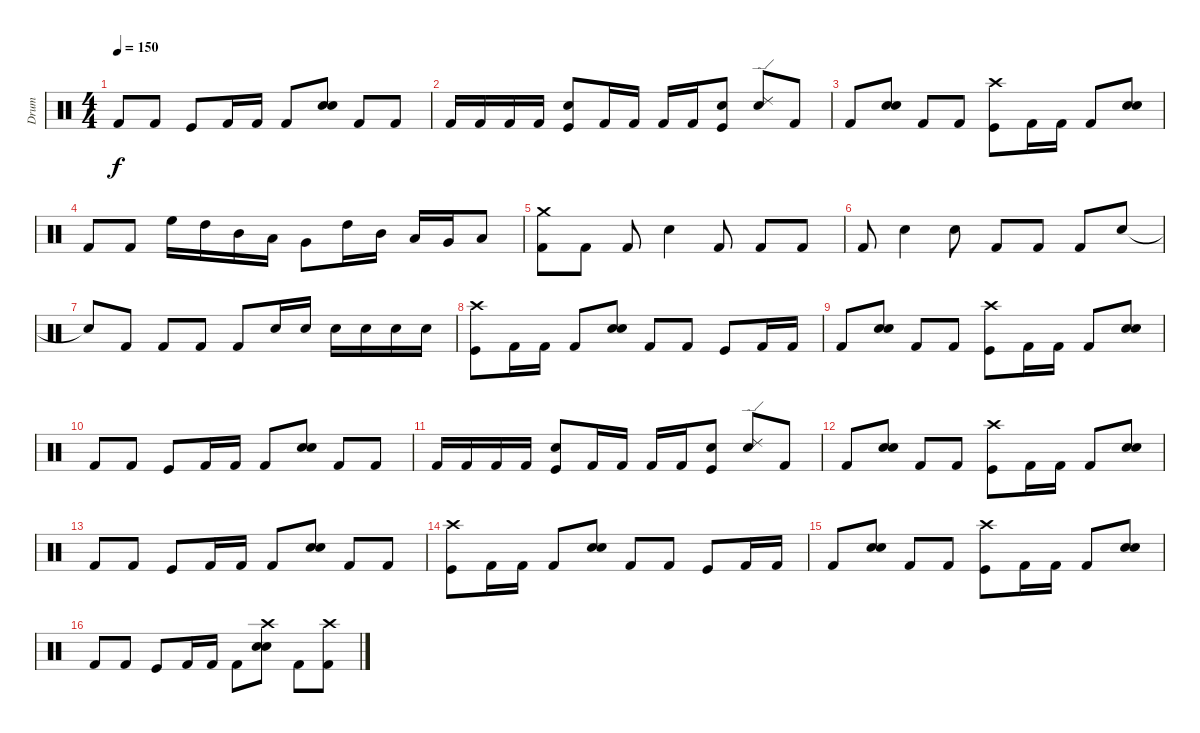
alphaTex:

\track ("Drum" "Drum") {instrument percussion}
\staff {score}
\articulation defaults
\ts (4 4)
\tempo 150
\clef neutral
\ks c "Kick (hit) 2".8{dy f} "Kick (hit) 2".8 "Kick (hit)".8 "Kick (hit) 2".16 "Kick (hit) 2".16 "Kick (hit) 2".8
("Snare (hit) 2" "Electric Snare (hit)").8 "Kick (hit) 2".8 "Kick (hit) 2".8 |
"Kick (hit) 2".16 "Kick (hit) 2".16 "Kick (hit) 2".16 "Kick (hit) 2".16 ("Electric Snare (hit)" "Kick (hit)").8 "Kick (hit) 2".16 "Kick (hit) 2".16 "Kick (hit) 2".16 "Kick (hit) 2".16 ("Electric Snare (hit)" "Kick (hit)").8 ("Ride (edge) 2" "Electric Snare (hit)").8 "Kick (hit) 2".8 |
"Kick (hit) 2".8 ("Snare (hit) 2" "Electric Snare (hit)").8 "Kick (hit) 2".8 "Kick (hit) 2".8 ("Crash high (hit)" "Kick (hit)").8 "Kick (hit) 2".16 "Kick (hit) 2".16 "Kick (hit) 2".8 ("Snare (hit) 2" "Electric Snare (hit)").8 |
"Kick (hit) 2".8 "Kick (hit) 2".8 "High Floor Tom (hit)".16 "High Tom (hit)".16 "Mid Tom (hit)".16 "Low Tom (hit)".16 "Very Low Tom (hit)".8 "High Tom (hit)".16 "Mid Tom (hit)".16 "Low Tom (hit)".16 "Very Low Tom (hit)".16 "Low Floor Tom (hit)".8 |
("Crash medium (hit)" "Kick (hit) 2").8 "Kick (hit) 2".8 "Kick (hit) 2".8 "Electric Snare (hit)".4 "Kick (hit) 2".8 "Kick (hit) 2".8 "Kick (hit) 2".8 |
"Kick (hit) 2".8 "Electric Snare (hit)".4 "Electric Snare (hit)".8 "Kick (hit) 2".8 "Kick (hit) 2".8 "Kick (hit) 2".8 "Electric Snare (hit)".8 |
"Snare (hit)"{t}.8 "Kick (hit) 2".8 "Kick (hit) 2".8 "Kick (hit) 2".8 "Kick (hit) 2".8 "Electric Snare (hit)".16 "Electric Snare (hit)".16 "Electric Snare (hit)".16 "Snare (hit) 2".16 "Snare (hit) 2".16 "Snare (hit) 2".16 |
("Crash high (hit)" "Kick (hit)").8 "Kick (hit) 2".16 "Kick (hit) 2".16 "Kick (hit) 2".8 ("Snare (hit) 2" "Electric Snare (hit)").8 "Kick (hit) 2".8 "Kick (hit) 2".8 "Kick (hit)".8 "Kick (hit) 2".16 "Kick (hit) 2".16 |
"Kick (hit) 2".8 ("Snare (hit) 2" "Electric Snare (hit)").8 "Kick (hit) 2".8 "Kick (hit) 2".8 ("Crash high (hit)" "Kick (hit)").8 "Kick (hit) 2".16 "Kick (hit) 2".16 "Kick (hit) 2".8 ("Snare (hit) 2" "Electric Snare (hit)").8 |
"Kick (hit) 2".8 "Kick (hit) 2".8 "Kick (hit)".8 "Kick (hit) 2".16 "Kick (hit) 2".16 "Kick (hit) 2".8 ("Snare (hit) 2" "Electric Snare (hit)").8 "Kick (hit) 2".8 "Kick (hit) 2".8 |
"Kick (hit) 2".16 "Kick (hit) 2".16 "Kick (hit) 2".16 "Kick (hit) 2".16 ("Electric Snare (hit)" "Kick (hit)").8 "Kick (hit) 2".16 "Kick (hit) 2".16 "Kick (hit) 2".16 "Kick (hit) 2".16 ("Electric Snare (hit)" "Kick (hit)").8 ("Ride (edge) 2" "Electric Snare (hit)").8 "Kick (hit) 2".8 |
"Kick (hit) 2".8 ("Snare (hit) 2" "Electric Snare (hit)").8 "Kick (hit) 2".8 "Kick (hit) 2".8 ("Crash high (hit)" "Kick (hit)").8 "Kick (hit) 2".16 "Kick (hit) 2".16 "Kick (hit) 2".8 ("Snare (hit) 2" "Electric Snare (hit)").8 |
"Kick (hit) 2".8 "Kick (hit) 2".8 "Kick (hit)".8 "Kick (hit) 2".16 "Kick (hit) 2".16 "Kick (hit) 2".8 ("Snare (hit) 2" "Electric Snare (hit)").8 "Kick (hit) 2".8 "Kick (hit) 2".8 |
("Crash high (hit)" "Kick (hit)").8 "Kick (hit) 2".16 "Kick (hit) 2".16 "Kick (hit) 2".8 ("Snare (hit) 2" "Electric Snare (hit)").8 "Kick (hit) 2".8 "Kick (hit) 2".8 "Kick (hit)".8 "Kick (hit) 2".16 "Kick (hit) 2".16 |
"Kick (hit) 2".8 ("Snare (hit) 2" "Electric Snare (hit)").8 "Kick (hit) 2".8 "Kick (hit) 2".8 ("Crash high (hit)" "Kick (hit)").8 "Kick (hit) 2".16 "Kick (hit) 2".16 "Kick (hit) 2".8 ("Snare (hit) 2" "Electric Snare (hit)").8 |
"Kick (hit) 2".8 "Kick (hit) 2".8 "Kick (hit)".8 "Kick (hit) 2".16 "Kick (hit) 2".16 "Kick (hit) 2".8 ("Crash high (hit)" "Snare (hit) 2" "Electric Snare (hit)").8 "Kick (hit) 2".8 ("Crash high (hit)" "Kick (hit) 2").8
